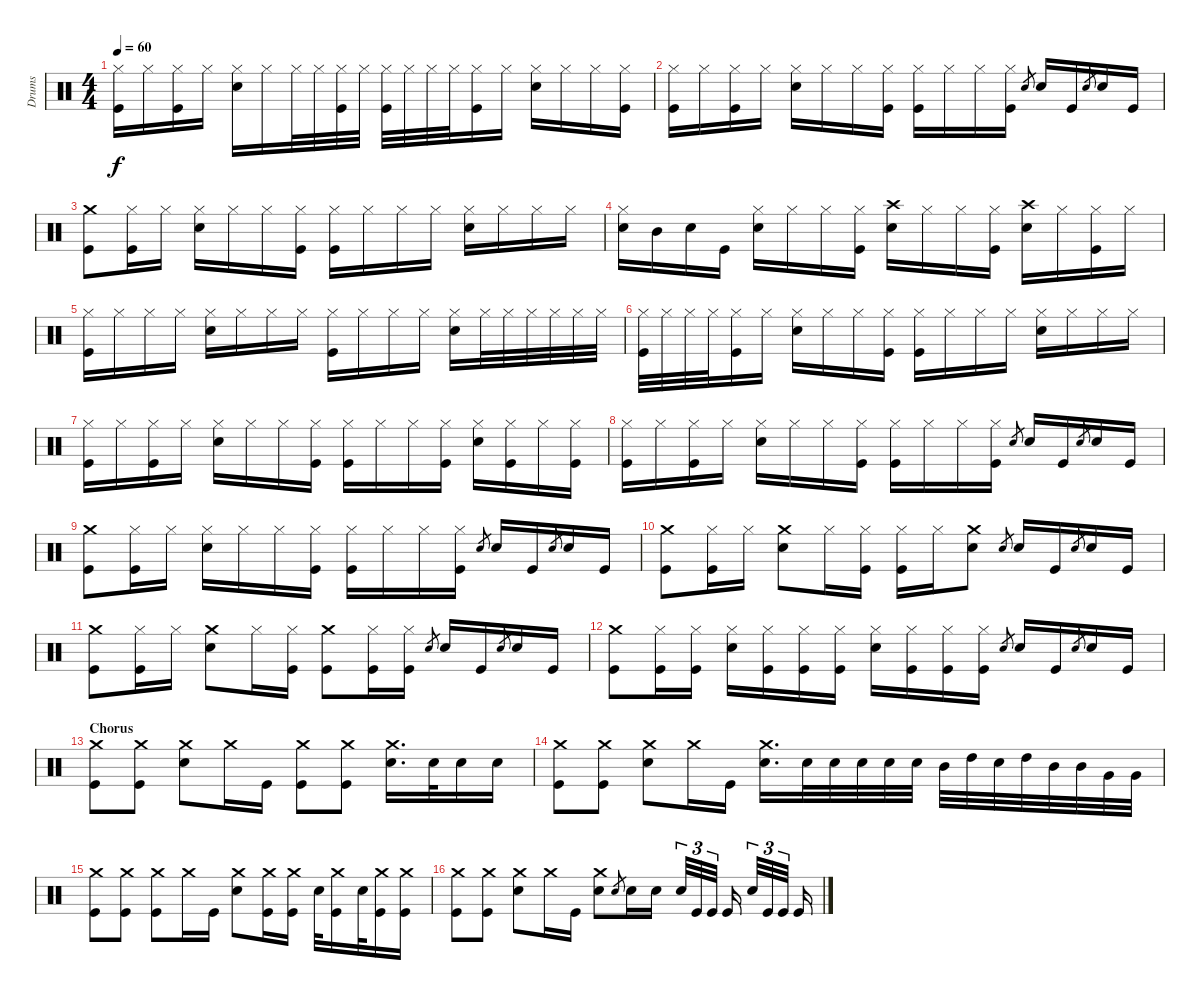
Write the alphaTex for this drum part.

\track ("Drums" "Drums") {instrument percussion}
\staff {score}
\articulation defaults
\ts (4 4)
\tempo 60
\clef neutral
\ks c
("Kick (hit)" "Hi-Hat (closed)").16{dy f} "Hi-Hat (closed)".16 ("Kick (hit)" "Hi-Hat (closed)").16 "Hi-Hat (closed)".16 ("Electric Snare (hit)" "Hi-Hat (closed)").16 "Hi-Hat (closed)".16 "Hi-Hat (closed)".32 "Hi-Hat (closed)".32 ("Kick (hit)" "Hi-Hat (closed)").32 "Hi-Hat (closed)".32 ("Kick (hit)" "Hi-Hat (closed)").32 "Hi-Hat (closed)".32 "Hi-Hat (closed)".32 "Hi-Hat (closed)".32 ("Kick (hit)" "Hi-Hat (closed)").16 "Hi-Hat (closed)".16 ("Electric Snare (hit)" "Hi-Hat (closed)").16 "Hi-Hat (closed)".16 "Hi-Hat (closed)".16 ("Kick (hit)" "Hi-Hat (closed)").16 |
("Kick (hit)" "Hi-Hat (closed)").16 "Hi-Hat (closed)".16 ("Kick (hit)" "Hi-Hat (closed)").16 "Hi-Hat (closed)".16 ("Electric Snare (hit)" "Hi-Hat (closed)").16 "Hi-Hat (closed)".16 "Hi-Hat (closed)".16 ("Kick (hit)" "Hi-Hat (closed)").16 ("Kick (hit)" "Hi-Hat (closed)").16 "Hi-Hat (closed)".16 "Hi-Hat (closed)".16 ("Kick (hit)" "Hi-Hat (closed)").16 "Electric Snare (hit)".8{gr} "Electric Snare (hit)".16 "Kick (hit)".16 "Electric Snare (hit)".8{gr} "Electric Snare (hit)".16 "Kick (hit)".16 |
("Kick (hit)" "Crash medium (hit)").8 ("Kick (hit)" "Hi-Hat (closed)").16 "Hi-Hat (closed)".16 ("Electric Snare (hit)" "Hi-Hat (closed)").16 "Hi-Hat (closed)".16 "Hi-Hat (closed)".16 ("Kick (hit)" "Hi-Hat (closed)").16 ("Kick (hit)" "Hi-Hat (closed)").16 "Hi-Hat (closed)".16 "Hi-Hat (closed)".16 "Hi-Hat (closed)".16 ("Electric Snare (hit)" "Hi-Hat (closed)").16 "Hi-Hat (closed)".16 "Hi-Hat (closed)".16 "Hi-Hat (closed)".16 |
("Electric Snare (hit)" "Hi-Hat (closed)").16 "Mid Tom (hit)".16 "Electric Snare (hit)".16 "Kick (hit)".16 ("Electric Snare (hit)" "Hi-Hat (closed)").16 "Hi-Hat (closed)".16 "Hi-Hat (closed)".16 ("Kick (hit)" "Hi-Hat (closed)").16 ("Electric Snare (hit)" "Crash high (hit)").16 "Hi-Hat (closed)".16 "Hi-Hat (closed)".16 ("Kick (hit)" "Hi-Hat (closed)").16 ("Electric Snare (hit)" "Crash high (hit)").16 "Hi-Hat (closed)".16 ("Kick (hit)" "Hi-Hat (closed)").16 "Hi-Hat (closed)".16 |
("Kick (hit)" "Hi-Hat (closed)").16 "Hi-Hat (closed)".16 "Hi-Hat (closed)".16 "Hi-Hat (closed)".16 ("Electric Snare (hit)" "Hi-Hat (closed)").16 "Hi-Hat (closed)".16 "Hi-Hat (closed)".16 "Hi-Hat (closed)".16 ("Kick (hit)" "Hi-Hat (closed)").16 "Hi-Hat (closed)".16 "Hi-Hat (closed)".16 "Hi-Hat (closed)".16 ("Electric Snare (hit)" "Hi-Hat (closed)").16 "Hi-Hat (closed)".32 "Hi-Hat (closed)".32 "Hi-Hat (closed)".32 "Hi-Hat (closed)".32 "Hi-Hat (closed)".32 "Hi-Hat (closed)".32 |
("Kick (hit)" "Hi-Hat (closed)").32 "Hi-Hat (closed)".32 "Hi-Hat (closed)".32 "Hi-Hat (closed)".32 ("Kick (hit)" "Hi-Hat (closed)").16 "Hi-Hat (closed)".16 ("Electric Snare (hit)" "Hi-Hat (closed)").16 "Hi-Hat (closed)".16 "Hi-Hat (closed)".16 ("Kick (hit)" "Hi-Hat (closed)").16 ("Kick (hit)" "Hi-Hat (closed)").16 "Hi-Hat (closed)".16 "Hi-Hat (closed)".16 "Hi-Hat (closed)".16 ("Electric Snare (hit)" "Hi-Hat (closed)").16 "Hi-Hat (closed)".16 "Hi-Hat (closed)".16 "Hi-Hat (closed)".16 |
("Kick (hit)" "Hi-Hat (closed)").16 "Hi-Hat (closed)".16 ("Kick (hit)" "Hi-Hat (closed)").16 "Hi-Hat (closed)".16 ("Electric Snare (hit)" "Hi-Hat (closed)").16 "Hi-Hat (closed)".16 "Hi-Hat (closed)".16 ("Kick (hit)" "Hi-Hat (closed)").16 ("Kick (hit)" "Hi-Hat (closed)").16 "Hi-Hat (closed)".16 "Hi-Hat (closed)".16 ("Kick (hit)" "Hi-Hat (closed)").16 ("Electric Snare (hit)" "Hi-Hat (closed)").16 ("Kick (hit)" "Hi-Hat (closed)").16 "Hi-Hat (closed)".16 ("Kick (hit)" "Hi-Hat (closed)").16 |
("Kick (hit)" "Hi-Hat (closed)").16 "Hi-Hat (closed)".16 ("Kick (hit)" "Hi-Hat (closed)").16 "Hi-Hat (closed)".16 ("Electric Snare (hit)" "Hi-Hat (closed)").16 "Hi-Hat (closed)".16 "Hi-Hat (closed)".16 ("Kick (hit)" "Hi-Hat (closed)").16 ("Kick (hit)" "Hi-Hat (closed)").16 "Hi-Hat (closed)".16 "Hi-Hat (closed)".16 ("Kick (hit)" "Hi-Hat (closed)").16 "Electric Snare (hit)".8{gr} "Electric Snare (hit)".16 "Kick (hit)".16 "Electric Snare (hit)".8{gr} "Electric Snare (hit)".16 "Kick (hit)".16 |
("Kick (hit)" "Crash medium (hit)").8 ("Kick (hit)" "Hi-Hat (closed)").16 "Hi-Hat (closed)".16 ("Electric Snare (hit)" "Hi-Hat (closed)").16 "Hi-Hat (closed)".16 "Hi-Hat (closed)".16 ("Kick (hit)" "Hi-Hat (closed)").16 ("Kick (hit)" "Hi-Hat (closed)").16 "Hi-Hat (closed)".16 "Hi-Hat (closed)".16 ("Kick (hit)" "Hi-Hat (closed)").16 "Electric Snare (hit)".8{gr} "Electric Snare (hit)".16 "Kick (hit)".16 "Electric Snare (hit)".8{gr} "Electric Snare (hit)".16 "Kick (hit)".16 |
("Kick (hit)" "Crash medium (hit)").8 ("Kick (hit)" "Hi-Hat (closed)").16 "Hi-Hat (closed)".16 ("Electric Snare (hit)" "Crash medium (hit)").8 "Hi-Hat (closed)".16 ("Kick (hit)" "Hi-Hat (closed)").16 ("Kick (hit)" "Hi-Hat (closed)").16 "Hi-Hat (closed)".16 ("Electric Snare (hit)" "Crash medium (hit)").8 "Electric Snare (hit)".8{gr} "Electric Snare (hit)".16 "Kick (hit)".16 "Electric Snare (hit)".8{gr} "Electric Snare (hit)".16 "Kick (hit)".16 |
("Kick (hit)" "Crash medium (hit)").8 ("Kick (hit)" "Hi-Hat (closed)").16 "Hi-Hat (closed)".16 ("Electric Snare (hit)" "Crash medium (hit)").8 "Hi-Hat (closed)".16 ("Kick (hit)" "Hi-Hat (closed)").16 ("Kick (hit)" "Crash medium (hit)").8 ("Kick (hit)" "Hi-Hat (closed)").16 ("Kick (hit)" "Hi-Hat (closed)").16 "Electric Snare (hit)".8{gr} "Electric Snare (hit)".16 "Kick (hit)".16 "Electric Snare (hit)".8{gr} "Electric Snare (hit)".16 "Kick (hit)".16 |
("Kick (hit)" "Crash medium (hit)").8 ("Kick (hit)" "Hi-Hat (closed)").16 ("Kick (hit)" "Hi-Hat (closed)").16 ("Electric Snare (hit)" "Hi-Hat (closed)").16 ("Kick (hit)" "Hi-Hat (closed)").16 ("Kick (hit)" "Hi-Hat (closed)").16 ("Kick (hit)" "Hi-Hat (closed)").16 ("Electric Snare (hit)" "Hi-Hat (closed)").16 ("Kick (hit)" "Hi-Hat (closed)").16 ("Kick (hit)" "Hi-Hat (closed)").16 ("Kick (hit)" "Hi-Hat (closed)").16 "Electric Snare (hit)".8{gr} "Electric Snare (hit)".16 "Kick (hit)".16 "Electric Snare (hit)".8{gr} "Electric Snare (hit)".16 "Kick (hit)".16 |
\section ("" "Chorus")
("Kick (hit)" "Crash medium (hit)").8 ("Kick (hit)" "Crash medium (hit)").8 ("Electric Snare (hit)" "Crash medium (hit)").8 "Crash medium (hit)".16 "Kick (hit)".16 ("Kick (hit)" "Crash medium (hit)").8 ("Kick (hit)" "Crash medium (hit)").8 ("Electric Snare (hit)" "Crash medium (hit)").16{d} "Electric Snare (hit)".32 "Electric Snare (hit)".16 "Electric Snare (hit)".16 |
("Kick (hit)" "Crash medium (hit)").8 ("Kick (hit)" "Crash medium (hit)").8 ("Electric Snare (hit)" "Crash medium (hit)").8 "Crash medium (hit)".16 "Kick (hit)".16 ("Electric Snare (hit)" "Crash medium (hit)").16{d} "Electric Snare (hit)".32 "Electric Snare (hit)".32 "Electric Snare (hit)".32 "Electric Snare (hit)".32 "Electric Snare (hit)".32 "Mid Tom (hit)".32 "High Tom (hit)".32 "Electric Snare (hit)".32 "High Tom (hit)".32 "Mid Tom (hit)".32 "Mid Tom (hit)".32 "Very Low Tom (hit)".32 "Very Low Tom (hit)".32 |
("Kick (hit)" "Crash medium (hit)").8 ("Kick (hit)" "Crash medium (hit)").8 ("Kick (hit)" "Crash medium (hit)").8 "Crash medium (hit)".16 "Kick (hit)".16 ("Electric Snare (hit)" "Crash medium (hit)").8 ("Kick (hit)" "Crash medium (hit)").16 ("Kick (hit)" "Crash medium (hit)").16 "Electric Snare (hit)".32 ("Kick (hit)" "Crash medium (hit)").16 "Electric Snare (hit)".32 ("Kick (hit)" "Crash medium (hit)").16 ("Kick (hit)" "Crash medium (hit)").16 |
("Kick (hit)" "Crash medium (hit)").8 ("Kick (hit)" "Crash medium (hit)").8 ("Electric Snare (hit)" "Crash medium (hit)").8 "Crash medium (hit)".16 "Kick (hit)".16 ("Electric Snare (hit)" "Crash medium (hit)").8 "Electric Snare (hit)".8{gr} "Electric Snare (hit)".16 "Electric Snare (hit)".16 "Electric Snare (hit)".32{tu (3 2)} "Kick (hit)".32{tu (3 2)} "Kick (hit)".32{tu (3 2)} "Kick (hit)".16 "Electric Snare (hit)".32{tu (3 2)} "Kick (hit)".32{tu (3 2)} "Kick (hit)".32{tu (3 2)} "Kick (hit)".16
